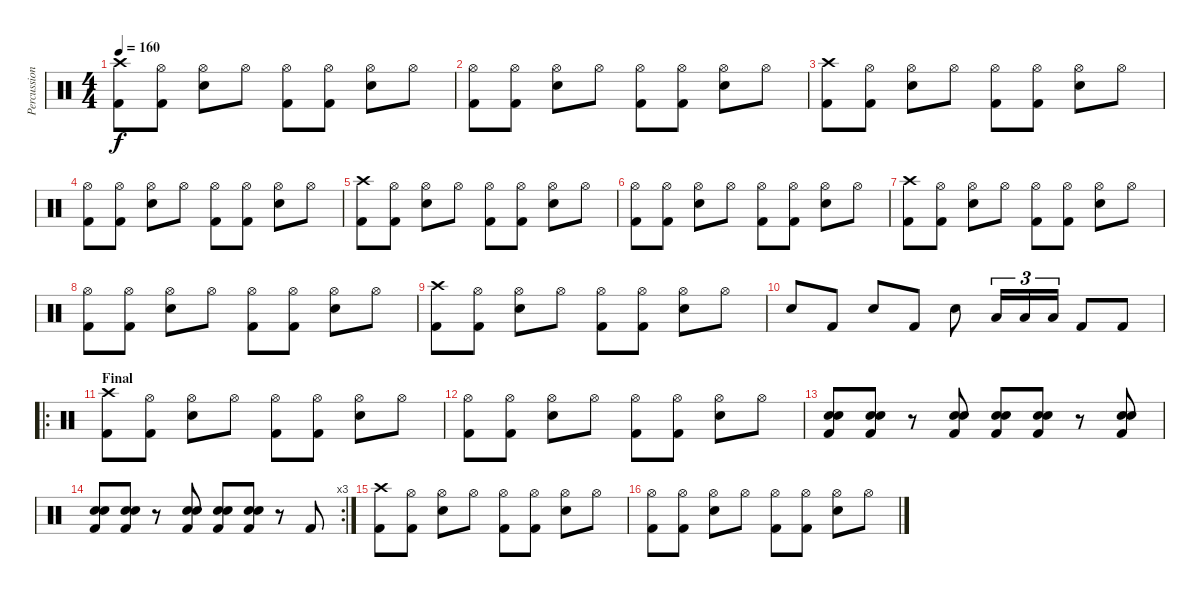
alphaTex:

\track ("Percussions" "Percussion") {instrument percussion}
\staff {score}
\articulation defaults
\ts (4 4)
\tempo 160
\clef neutral
\ks c
("Crash high (hit)" "Kick (hit) 2").8{dy f} ("Hi-Hat (open)" "Kick (hit) 2").8 ("Hi-Hat (open)" "Electric Snare (hit)").8 "Hi-Hat (open)".8 ("Hi-Hat (open)" "Kick (hit) 2").8 ("Hi-Hat (open)" "Kick (hit) 2").8 ("Hi-Hat (open)" "Electric Snare (hit)").8 "Hi-Hat (open)".8 |
("Hi-Hat (open)" "Kick (hit) 2").8 ("Hi-Hat (open)" "Kick (hit) 2").8 ("Hi-Hat (open)" "Electric Snare (hit)").8 "Hi-Hat (open)".8 ("Hi-Hat (open)" "Kick (hit) 2").8 ("Hi-Hat (open)" "Kick (hit) 2").8 ("Hi-Hat (open)" "Electric Snare (hit)").8 "Hi-Hat (open)".8 |
("Crash high (hit)" "Kick (hit) 2").8 ("Hi-Hat (open)" "Kick (hit) 2").8 ("Hi-Hat (open)" "Electric Snare (hit)").8 "Hi-Hat (open)".8 ("Hi-Hat (open)" "Kick (hit) 2").8 ("Hi-Hat (open)" "Kick (hit) 2").8 ("Hi-Hat (open)" "Electric Snare (hit)").8 "Hi-Hat (open)".8 |
("Hi-Hat (open)" "Kick (hit) 2").8 ("Hi-Hat (open)" "Kick (hit) 2").8 ("Hi-Hat (open)" "Electric Snare (hit)").8 "Hi-Hat (open)".8 ("Hi-Hat (open)" "Kick (hit) 2").8 ("Hi-Hat (open)" "Kick (hit) 2").8 ("Hi-Hat (open)" "Electric Snare (hit)").8 "Hi-Hat (open)".8 |
("Crash high (hit)" "Kick (hit) 2").8 ("Hi-Hat (open)" "Kick (hit) 2").8 ("Hi-Hat (open)" "Electric Snare (hit)").8 "Hi-Hat (open)".8 ("Hi-Hat (open)" "Kick (hit) 2").8 ("Hi-Hat (open)" "Kick (hit) 2").8 ("Hi-Hat (open)" "Electric Snare (hit)").8 "Hi-Hat (open)".8 |
("Hi-Hat (open)" "Kick (hit) 2").8 ("Hi-Hat (open)" "Kick (hit) 2").8 ("Hi-Hat (open)" "Electric Snare (hit)").8 "Hi-Hat (open)".8 ("Hi-Hat (open)" "Kick (hit) 2").8 ("Hi-Hat (open)" "Kick (hit) 2").8 ("Hi-Hat (open)" "Electric Snare (hit)").8 "Hi-Hat (open)".8 |
("Crash high (hit)" "Kick (hit) 2").8 ("Hi-Hat (open)" "Kick (hit) 2").8 ("Hi-Hat (open)" "Electric Snare (hit)").8 "Hi-Hat (open)".8 ("Hi-Hat (open)" "Kick (hit) 2").8 ("Hi-Hat (open)" "Kick (hit) 2").8 ("Hi-Hat (open)" "Electric Snare (hit)").8 "Hi-Hat (open)".8 |
("Hi-Hat (open)" "Kick (hit) 2").8 ("Hi-Hat (open)" "Kick (hit) 2").8 ("Hi-Hat (open)" "Electric Snare (hit)").8 "Hi-Hat (open)".8 ("Hi-Hat (open)" "Kick (hit) 2").8 ("Hi-Hat (open)" "Kick (hit) 2").8 ("Hi-Hat (open)" "Electric Snare (hit)").8 "Hi-Hat (open)".8 |
("Crash high (hit)" "Kick (hit) 2").8 ("Hi-Hat (open)" "Kick (hit) 2").8 ("Hi-Hat (open)" "Electric Snare (hit)").8 "Hi-Hat (open)".8 ("Hi-Hat (open)" "Kick (hit) 2").8 ("Hi-Hat (open)" "Kick (hit) 2").8 ("Hi-Hat (open)" "Electric Snare (hit)").8 "Hi-Hat (open)".8 |
"Electric Snare (hit)".8 "Kick (hit) 2".8 "Electric Snare (hit)".8 "Kick (hit) 2".8 "Electric Snare (hit)".8 "Low Tom (hit)".16{tu (3 2)} "Low Tom (hit)".16{tu (3 2)} "Low Tom (hit)".16{tu (3 2)} "Kick (hit) 2".8 "Kick (hit) 2".8 |
\ro
\section ("" "Final")
("Crash high (hit)" "Kick (hit) 2").8 ("Hi-Hat (open)" "Kick (hit) 2").8 ("Hi-Hat (open)" "Electric Snare (hit)").8 "Hi-Hat (open)".8 ("Hi-Hat (open)" "Kick (hit) 2").8 ("Hi-Hat (open)" "Kick (hit) 2").8 ("Hi-Hat (open)" "Electric Snare (hit)").8 "Hi-Hat (open)".8 |
("Hi-Hat (open)" "Kick (hit) 2").8 ("Hi-Hat (open)" "Kick (hit) 2").8 ("Hi-Hat (open)" "Electric Snare (hit)").8 "Hi-Hat (open)".8 ("Hi-Hat (open)" "Kick (hit) 2").8 ("Hi-Hat (open)" "Kick (hit) 2").8 ("Hi-Hat (open)" "Electric Snare (hit)").8 "Hi-Hat (open)".8 |
("Electric Snare (hit)" "Electric Snare (hit)" "Kick (hit) 2").8 ("Electric Snare (hit)" "Electric Snare (hit)" "Kick (hit) 2").8 r.8 ("Electric Snare (hit)" "Electric Snare (hit)" "Kick (hit) 2").8 ("Electric Snare (hit)" "Electric Snare (hit)" "Kick (hit) 2").8 ("Electric Snare (hit)" "Electric Snare (hit)" "Kick (hit) 2").8 r.8 ("Electric Snare (hit)" "Electric Snare (hit)" "Kick (hit) 2").8 |
\rc 3
("Electric Snare (hit)" "Electric Snare (hit)" "Kick (hit) 2").8 ("Electric Snare (hit)" "Electric Snare (hit)" "Kick (hit) 2").8 r.8 ("Electric Snare (hit)" "Electric Snare (hit)" "Kick (hit) 2").8 ("Electric Snare (hit)" "Electric Snare (hit)" "Kick (hit) 2").8 ("Electric Snare (hit)" "Electric Snare (hit)" "Kick (hit) 2").8 r.8 "Kick (hit) 2".8 |
("Crash high (hit)" "Kick (hit) 2").8 ("Hi-Hat (open)" "Kick (hit) 2").8 ("Hi-Hat (open)" "Electric Snare (hit)").8 "Hi-Hat (open)".8 ("Hi-Hat (open)" "Kick (hit) 2").8 ("Hi-Hat (open)" "Kick (hit) 2").8 ("Hi-Hat (open)" "Electric Snare (hit)").8 "Hi-Hat (open)".8 |
("Hi-Hat (open)" "Kick (hit) 2").8 ("Hi-Hat (open)" "Kick (hit) 2").8 ("Hi-Hat (open)" "Electric Snare (hit)").8 "Hi-Hat (open)".8 ("Hi-Hat (open)" "Kick (hit) 2").8 ("Hi-Hat (open)" "Kick (hit) 2").8 ("Hi-Hat (open)" "Electric Snare (hit)").8 "Hi-Hat (open)".8
